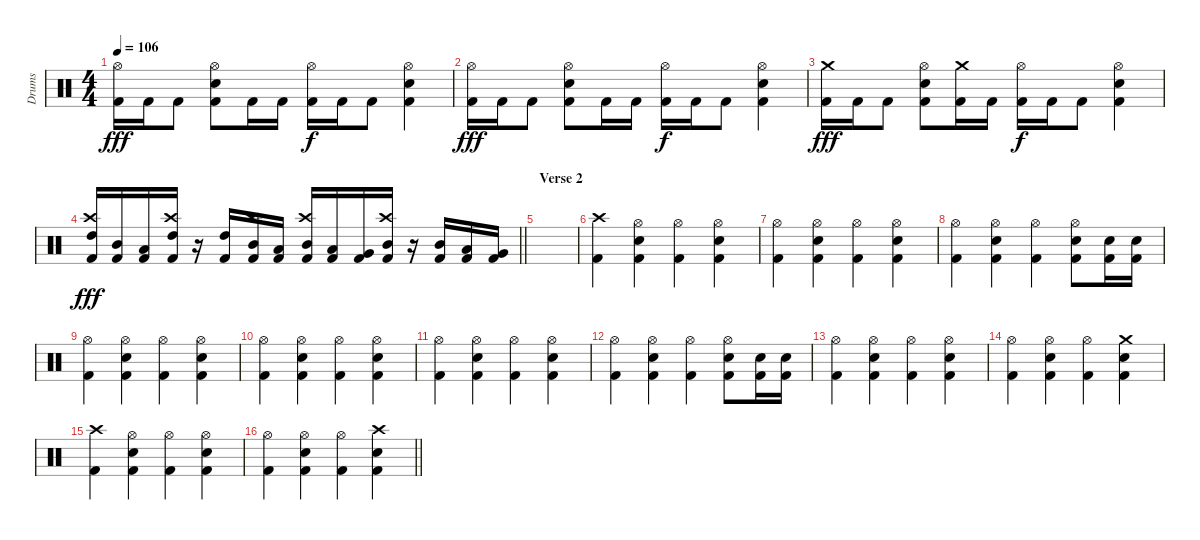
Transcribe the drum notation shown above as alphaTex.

\track ("Drums" "Drums") {instrument percussion}
\staff {score}
\articulation defaults
\ts (4 4)
\tempo 106
\clef neutral
\ks c
("Hi-Hat (open)" "Kick (hit) 2").16{dy fff} "Kick (hit) 2".16 "Kick (hit) 2".8 ("Hi-Hat (open)" "Snare (hit) 2" "Kick (hit) 2").8 "Kick (hit) 2".16 "Kick (hit) 2".16 ("Hi-Hat (open)" "Kick (hit) 2").16{dy f} "Kick (hit) 2".16 "Kick (hit) 2".8 ("Hi-Hat (open)" "Snare (hit) 2" "Kick (hit) 2").4 |
("Hi-Hat (open)" "Kick (hit) 2").16{dy fff} "Kick (hit) 2".16 "Kick (hit) 2".8 ("Hi-Hat (open)" "Snare (hit) 2" "Kick (hit) 2").8 "Kick (hit) 2".16 "Kick (hit) 2".16 ("Hi-Hat (open)" "Kick (hit) 2").16{dy f} "Kick (hit) 2".16 "Kick (hit) 2".8 ("Hi-Hat (open)" "Snare (hit) 2" "Kick (hit) 2").4 |
("Crash medium (hit)" "Kick (hit) 2").16{dy fff} "Kick (hit) 2".16 "Kick (hit) 2".8 ("Hi-Hat (open)" "Snare (hit) 2" "Kick (hit) 2").8 ("Crash medium (hit)" "Kick (hit) 2").16 "Kick (hit) 2".16 ("Hi-Hat (open)" "Kick (hit) 2").16{dy f} "Kick (hit) 2".16 "Kick (hit) 2".8 ("Hi-Hat (open)" "Snare (hit) 2" "Kick (hit) 2").4 |
\barLineRight lightlight
("Crash high (hit)" "High Tom (hit)" "Kick (hit) 2").16{dy fff} ("Mid Tom (hit)" "Kick (hit) 2").16 ("Low Tom (hit)" "Kick (hit) 2").16 ("Crash high (hit)" "High Tom (hit)" "Kick (hit) 2").16 r.16 ("High Tom (hit)" "Kick (hit) 2").16 ("Crash high (hit)" "Mid Tom (hit)" "Kick (hit) 2").16 ("Low Tom (hit)" "Kick (hit) 2").16 ("Crash high (hit)" "Mid Tom (hit)" "Kick (hit) 2").16 ("Low Tom (hit)" "Kick (hit) 2").16 ("Very Low Tom (hit)" "Kick (hit) 2").16 ("Crash high (hit)" "Mid Tom (hit)" "Kick (hit) 2").16 r.16 ("Mid Tom (hit)" "Kick (hit) 2").16 ("Low Tom (hit)" "Kick (hit) 2").16 ("Very Low Tom (hit)" "Kick (hit) 2").16 |
\section ("" "Verse 2")
|
("Crash high (hit)" "Kick (hit) 2").4 ("Hi-Hat (open)" "Snare (hit) 2" "Kick (hit) 2").4 ("Hi-Hat (open)" "Kick (hit) 2").4 ("Hi-Hat (open)" "Snare (hit) 2" "Kick (hit) 2").4 |
("Hi-Hat (open)" "Kick (hit) 2").4 ("Hi-Hat (open)" "Snare (hit) 2" "Kick (hit) 2").4 ("Hi-Hat (open)" "Kick (hit) 2").4 ("Hi-Hat (open)" "Snare (hit) 2" "Kick (hit) 2").4 |
("Hi-Hat (open)" "Kick (hit) 2").4 ("Hi-Hat (open)" "Snare (hit) 2" "Kick (hit) 2").4 ("Hi-Hat (open)" "Kick (hit) 2").4 ("Hi-Hat (open)" "Snare (hit) 2" "Kick (hit) 2").8 ("Snare (hit) 2" "Kick (hit) 2").16 ("Snare (hit) 2" "Kick (hit) 2").16 |
("Hi-Hat (open)" "Kick (hit) 2").4 ("Hi-Hat (open)" "Snare (hit) 2" "Kick (hit) 2").4 ("Hi-Hat (open)" "Kick (hit) 2").4 ("Hi-Hat (open)" "Snare (hit) 2" "Kick (hit) 2").4 |
("Hi-Hat (open)" "Kick (hit) 2").4 ("Hi-Hat (open)" "Snare (hit) 2" "Kick (hit) 2").4 ("Hi-Hat (open)" "Kick (hit) 2").4 ("Hi-Hat (open)" "Snare (hit) 2" "Kick (hit) 2").4 |
("Hi-Hat (open)" "Kick (hit) 2").4 ("Hi-Hat (open)" "Snare (hit) 2" "Kick (hit) 2").4 ("Hi-Hat (open)" "Kick (hit) 2").4 ("Hi-Hat (open)" "Snare (hit) 2" "Kick (hit) 2").4 |
("Hi-Hat (open)" "Kick (hit) 2").4 ("Hi-Hat (open)" "Snare (hit) 2" "Kick (hit) 2").4 ("Hi-Hat (open)" "Kick (hit) 2").4 ("Hi-Hat (open)" "Snare (hit) 2" "Kick (hit) 2").8 ("Snare (hit) 2" "Kick (hit) 2").16 ("Snare (hit) 2" "Kick (hit) 2").16 |
("Hi-Hat (open)" "Kick (hit) 2").4 ("Hi-Hat (open)" "Snare (hit) 2" "Kick (hit) 2").4 ("Hi-Hat (open)" "Kick (hit) 2").4 ("Hi-Hat (open)" "Snare (hit) 2" "Kick (hit) 2").4 |
("Hi-Hat (open)" "Kick (hit) 2").4 ("Hi-Hat (open)" "Snare (hit) 2" "Kick (hit) 2").4 ("Hi-Hat (open)" "Kick (hit) 2").4 ("Crash medium (hit)" "Snare (hit) 2" "Kick (hit) 2").4 |
("Crash high (hit)" "Kick (hit) 2").4 ("Hi-Hat (open)" "Snare (hit) 2" "Kick (hit) 2").4 ("Hi-Hat (open)" "Kick (hit) 2").4 ("Hi-Hat (open)" "Snare (hit) 2" "Kick (hit) 2").4 |
\barLineRight lightlight
("Hi-Hat (open)" "Kick (hit) 2").4 ("Hi-Hat (open)" "Snare (hit) 2" "Kick (hit) 2").4 ("Hi-Hat (open)" "Kick (hit) 2").4 ("Crash high (hit)" "Snare (hit) 2" "Kick (hit) 2").4
